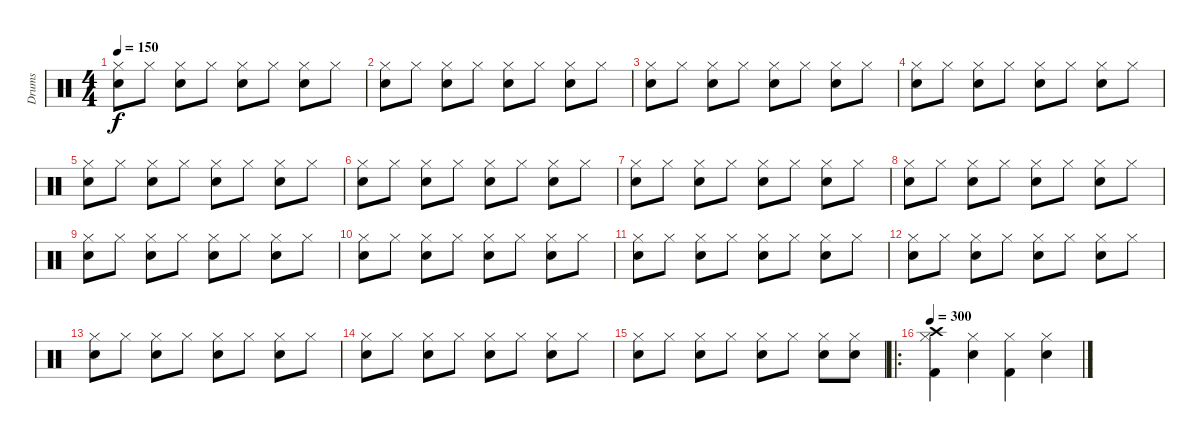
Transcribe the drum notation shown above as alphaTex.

\track ("Drums" "Drums") {instrument percussion}
\staff {score}
\articulation defaults
\ts (4 4)
\tempo 150
\clef neutral
\ks c
("Hi-Hat (closed)" "Snare (hit) 2").8{dy f} "Hi-Hat (closed)".8 ("Hi-Hat (closed)" "Snare (hit) 2").8 "Hi-Hat (closed)".8 ("Hi-Hat (closed)" "Snare (hit) 2").8 "Hi-Hat (closed)".8 ("Hi-Hat (closed)" "Snare (hit) 2").8 "Hi-Hat (closed)".8 |
("Hi-Hat (closed)" "Snare (hit) 2").8 "Hi-Hat (closed)".8 ("Hi-Hat (closed)" "Snare (hit) 2").8 "Hi-Hat (closed)".8 ("Hi-Hat (closed)" "Snare (hit) 2").8 "Hi-Hat (closed)".8 ("Hi-Hat (closed)" "Snare (hit) 2").8 "Hi-Hat (closed)".8 |
("Hi-Hat (closed)" "Snare (hit) 2").8 "Hi-Hat (closed)".8 ("Hi-Hat (closed)" "Snare (hit) 2").8 "Hi-Hat (closed)".8 ("Hi-Hat (closed)" "Snare (hit) 2").8 "Hi-Hat (closed)".8 ("Hi-Hat (closed)" "Snare (hit) 2").8 "Hi-Hat (closed)".8 |
("Hi-Hat (closed)" "Snare (hit) 2").8 "Hi-Hat (closed)".8 ("Hi-Hat (closed)" "Snare (hit) 2").8 "Hi-Hat (closed)".8 ("Hi-Hat (closed)" "Snare (hit) 2").8 "Hi-Hat (closed)".8 ("Hi-Hat (closed)" "Snare (hit) 2").8 "Hi-Hat (closed)".8 |
("Hi-Hat (closed)" "Snare (hit) 2").8 "Hi-Hat (closed)".8 ("Hi-Hat (closed)" "Snare (hit) 2").8 "Hi-Hat (closed)".8 ("Hi-Hat (closed)" "Snare (hit) 2").8 "Hi-Hat (closed)".8 ("Hi-Hat (closed)" "Snare (hit) 2").8 "Hi-Hat (closed)".8 |
("Hi-Hat (closed)" "Snare (hit) 2").8 "Hi-Hat (closed)".8 ("Hi-Hat (closed)" "Snare (hit) 2").8 "Hi-Hat (closed)".8 ("Hi-Hat (closed)" "Snare (hit) 2").8 "Hi-Hat (closed)".8 ("Hi-Hat (closed)" "Snare (hit) 2").8 "Hi-Hat (closed)".8 |
("Hi-Hat (closed)" "Snare (hit) 2").8 "Hi-Hat (closed)".8 ("Hi-Hat (closed)" "Snare (hit) 2").8 "Hi-Hat (closed)".8 ("Hi-Hat (closed)" "Snare (hit) 2").8 "Hi-Hat (closed)".8 ("Hi-Hat (closed)" "Snare (hit) 2").8 "Hi-Hat (closed)".8 |
("Hi-Hat (closed)" "Snare (hit) 2").8 "Hi-Hat (closed)".8 ("Hi-Hat (closed)" "Snare (hit) 2").8 "Hi-Hat (closed)".8 ("Hi-Hat (closed)" "Snare (hit) 2").8 "Hi-Hat (closed)".8 ("Hi-Hat (closed)" "Snare (hit) 2").8 "Hi-Hat (closed)".8 |
("Hi-Hat (closed)" "Snare (hit) 2").8 "Hi-Hat (closed)".8 ("Hi-Hat (closed)" "Snare (hit) 2").8 "Hi-Hat (closed)".8 ("Hi-Hat (closed)" "Snare (hit) 2").8 "Hi-Hat (closed)".8 ("Hi-Hat (closed)" "Snare (hit) 2").8 "Hi-Hat (closed)".8 |
("Hi-Hat (closed)" "Snare (hit) 2").8 "Hi-Hat (closed)".8 ("Hi-Hat (closed)" "Snare (hit) 2").8 "Hi-Hat (closed)".8 ("Hi-Hat (closed)" "Snare (hit) 2").8 "Hi-Hat (closed)".8 ("Hi-Hat (closed)" "Snare (hit) 2").8 "Hi-Hat (closed)".8 |
("Hi-Hat (closed)" "Snare (hit) 2").8 "Hi-Hat (closed)".8 ("Hi-Hat (closed)" "Snare (hit) 2").8 "Hi-Hat (closed)".8 ("Hi-Hat (closed)" "Snare (hit) 2").8 "Hi-Hat (closed)".8 ("Hi-Hat (closed)" "Snare (hit) 2").8 "Hi-Hat (closed)".8 |
("Hi-Hat (closed)" "Snare (hit) 2").8 "Hi-Hat (closed)".8 ("Hi-Hat (closed)" "Snare (hit) 2").8 "Hi-Hat (closed)".8 ("Hi-Hat (closed)" "Snare (hit) 2").8 "Hi-Hat (closed)".8 ("Hi-Hat (closed)" "Snare (hit) 2").8 "Hi-Hat (closed)".8 |
("Hi-Hat (closed)" "Snare (hit) 2").8 "Hi-Hat (closed)".8 ("Hi-Hat (closed)" "Snare (hit) 2").8 "Hi-Hat (closed)".8 ("Hi-Hat (closed)" "Snare (hit) 2").8 "Hi-Hat (closed)".8 ("Hi-Hat (closed)" "Snare (hit) 2").8 "Hi-Hat (closed)".8 |
("Hi-Hat (closed)" "Snare (hit) 2").8 "Hi-Hat (closed)".8 ("Hi-Hat (closed)" "Snare (hit) 2").8 "Hi-Hat (closed)".8 ("Hi-Hat (closed)" "Snare (hit) 2").8 "Hi-Hat (closed)".8 ("Hi-Hat (closed)" "Snare (hit) 2").8 "Hi-Hat (closed)".8 |
("Hi-Hat (closed)" "Snare (hit) 2").8 "Hi-Hat (closed)".8 ("Hi-Hat (closed)" "Snare (hit) 2").8 "Hi-Hat (closed)".8 ("Hi-Hat (closed)" "Snare (hit) 2").8 "Hi-Hat (closed)".8 ("Hi-Hat (closed)" "Snare (hit) 2").8 ("Hi-Hat (closed)" "Snare (hit) 2").8 |
\ro
\tempo 300
("Hi-Hat (closed)" "Kick (hit) 2" "Crash high (hit)").4 ("Hi-Hat (closed)" "Snare (hit) 2").4 ("Hi-Hat (closed)" "Kick (hit) 2").4 ("Hi-Hat (closed)" "Snare (hit) 2").4
